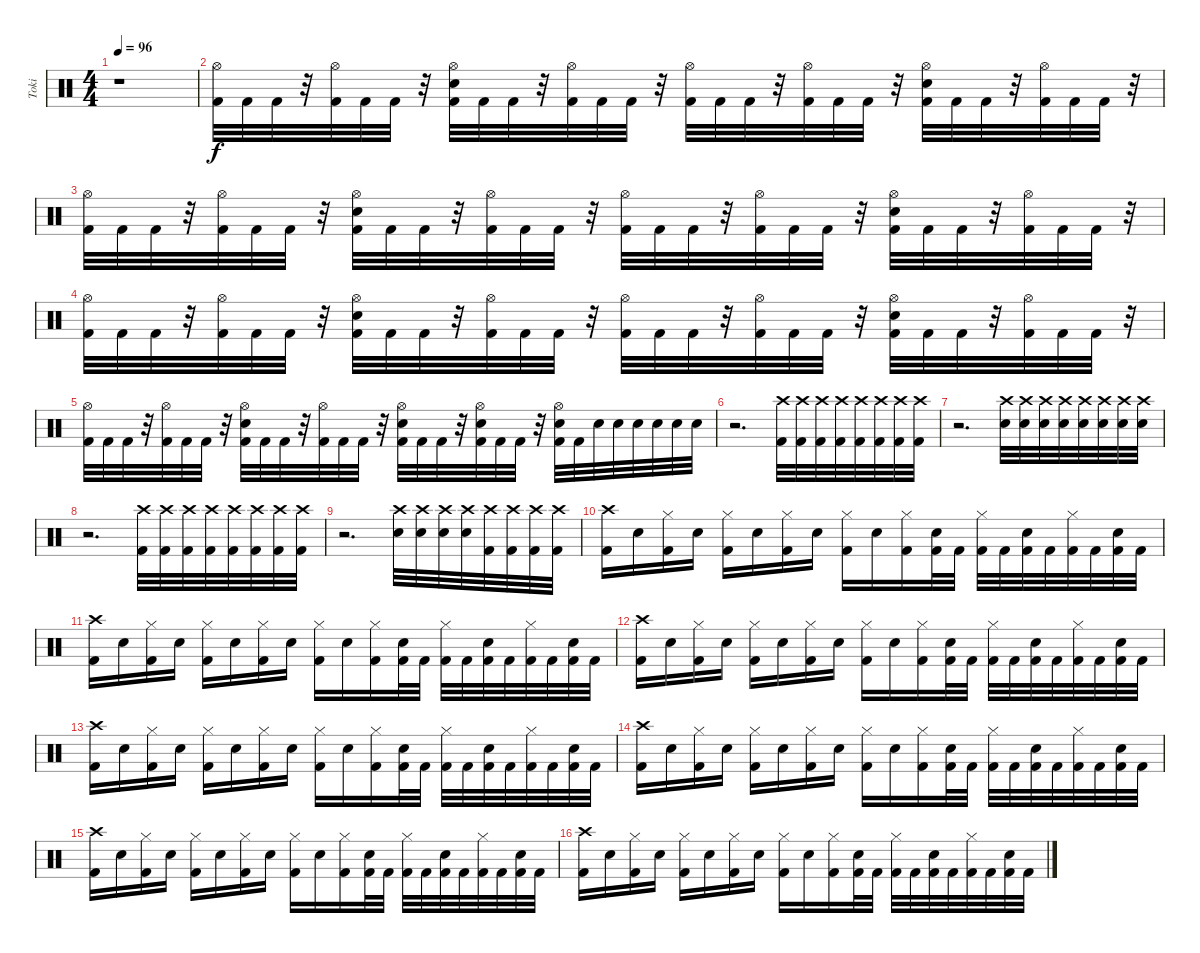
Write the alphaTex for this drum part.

\track ("Toki" "Toki") {instrument percussion}
\staff {score}
\articulation defaults
\ts (4 4)
\tempo 96
\clef neutral
\ks c
r.1{dy f} |
("Hi-Hat (open)" "Kick (hit) 2").32 "Kick (hit) 2".32 "Kick (hit) 2".32 r.32 ("Hi-Hat (open)" "Kick (hit) 2").32 "Kick (hit) 2".32 "Kick (hit) 2".32 r.32 ("Hi-Hat (open)" "Electric Snare (hit)" "Kick (hit) 2").32 "Kick (hit) 2".32 "Kick (hit) 2".32 r.32 ("Hi-Hat (open)" "Kick (hit) 2").32 "Kick (hit) 2".32 "Kick (hit) 2".32 r.32 ("Hi-Hat (open)" "Kick (hit) 2").32 "Kick (hit) 2".32 "Kick (hit) 2".32 r.32 ("Hi-Hat (open)" "Kick (hit) 2").32 "Kick (hit) 2".32 "Kick (hit) 2".32 r.32 ("Hi-Hat (open)" "Electric Snare (hit)" "Kick (hit) 2").32 "Kick (hit) 2".32 "Kick (hit) 2".32 r.32 ("Hi-Hat (open)" "Kick (hit) 2").32 "Kick (hit) 2".32 "Kick (hit) 2".32 r.32 |
("Hi-Hat (open)" "Kick (hit) 2").32 "Kick (hit) 2".32 "Kick (hit) 2".32 r.32 ("Hi-Hat (open)" "Kick (hit) 2").32 "Kick (hit) 2".32 "Kick (hit) 2".32 r.32 ("Hi-Hat (open)" "Electric Snare (hit)" "Kick (hit) 2").32 "Kick (hit) 2".32 "Kick (hit) 2".32 r.32 ("Hi-Hat (open)" "Kick (hit) 2").32 "Kick (hit) 2".32 "Kick (hit) 2".32 r.32 ("Hi-Hat (open)" "Kick (hit) 2").32 "Kick (hit) 2".32 "Kick (hit) 2".32 r.32 ("Hi-Hat (open)" "Kick (hit) 2").32 "Kick (hit) 2".32 "Kick (hit) 2".32 r.32 ("Hi-Hat (open)" "Electric Snare (hit)" "Kick (hit) 2").32 "Kick (hit) 2".32 "Kick (hit) 2".32 r.32 ("Hi-Hat (open)" "Kick (hit) 2").32 "Kick (hit) 2".32 "Kick (hit) 2".32 r.32 |
("Hi-Hat (open)" "Kick (hit) 2").32 "Kick (hit) 2".32 "Kick (hit) 2".32 r.32 ("Hi-Hat (open)" "Kick (hit) 2").32 "Kick (hit) 2".32 "Kick (hit) 2".32 r.32 ("Hi-Hat (open)" "Electric Snare (hit)" "Kick (hit) 2").32 "Kick (hit) 2".32 "Kick (hit) 2".32 r.32 ("Hi-Hat (open)" "Kick (hit) 2").32 "Kick (hit) 2".32 "Kick (hit) 2".32 r.32 ("Hi-Hat (open)" "Kick (hit) 2").32 "Kick (hit) 2".32 "Kick (hit) 2".32 r.32 ("Hi-Hat (open)" "Kick (hit) 2").32 "Kick (hit) 2".32 "Kick (hit) 2".32 r.32 ("Hi-Hat (open)" "Electric Snare (hit)" "Kick (hit) 2").32 "Kick (hit) 2".32 "Kick (hit) 2".32 r.32 ("Hi-Hat (open)" "Kick (hit) 2").32 "Kick (hit) 2".32 "Kick (hit) 2".32 r.32 |
("Hi-Hat (open)" "Kick (hit) 2").32 "Kick (hit) 2".32 "Kick (hit) 2".32 r.32 ("Hi-Hat (open)" "Kick (hit) 2").32 "Kick (hit) 2".32 "Kick (hit) 2".32 r.32 ("Hi-Hat (open)" "Electric Snare (hit)" "Kick (hit) 2").32 "Kick (hit) 2".32 "Kick (hit) 2".32 r.32 ("Hi-Hat (open)" "Kick (hit) 2").32 "Kick (hit) 2".32 "Kick (hit) 2".32 r.32 ("Hi-Hat (open)" "Electric Snare (hit)" "Kick (hit) 2").32 "Kick (hit) 2".32 "Kick (hit) 2".32 r.32 ("Hi-Hat (open)" "Electric Snare (hit)" "Kick (hit) 2").32 "Kick (hit) 2".32 "Kick (hit) 2".32 r.32 ("Hi-Hat (open)" "Electric Snare (hit)" "Kick (hit) 2").32 "Kick (hit) 2".32 "Electric Snare (hit)".32 "Electric Snare (hit)".32 "Electric Snare (hit)".32 "Electric Snare (hit)".32 "Electric Snare (hit)".32 "Electric Snare (hit)".32 |
\section ("" "")
r.2{d} ("Crash high (hit)" "Kick (hit) 2").32 ("Crash high (hit)" "Kick (hit) 2").32 ("Crash high (hit)" "Kick (hit) 2").32 ("Crash high (hit)" "Kick (hit) 2").32 ("Crash high (hit)" "Kick (hit) 2").32 ("Crash high (hit)" "Kick (hit) 2").32 ("Crash high (hit)" "Kick (hit) 2").32 ("Crash high (hit)" "Kick (hit) 2").32 |
r.2{d} ("Crash high (hit)" "Electric Snare (hit)").32 ("Crash high (hit)" "Electric Snare (hit)").32 ("Crash high (hit)" "Electric Snare (hit)").32 ("Crash high (hit)" "Electric Snare (hit)").32 ("Crash high (hit)" "Electric Snare (hit)").32 ("Crash high (hit)" "Electric Snare (hit)").32 ("Crash high (hit)" "Electric Snare (hit)").32 ("Crash high (hit)" "Electric Snare (hit)").32 |
r.2{d} ("Crash high (hit)" "Kick (hit) 2").32 ("Crash high (hit)" "Kick (hit) 2").32 ("Crash high (hit)" "Kick (hit) 2").32 ("Crash high (hit)" "Kick (hit) 2").32 ("Crash high (hit)" "Kick (hit) 2").32 ("Crash high (hit)" "Kick (hit) 2").32 ("Crash high (hit)" "Kick (hit) 2").32 ("Crash high (hit)" "Kick (hit) 2").32 |
r.2{d} ("Crash high (hit)" "Electric Snare (hit)").32 ("Crash high (hit)" "Electric Snare (hit)").32 ("Crash high (hit)" "Electric Snare (hit)").32 ("Crash high (hit)" "Electric Snare (hit)").32 ("Crash high (hit)" "Kick (hit) 2").32 ("Crash high (hit)" "Kick (hit) 2").32 ("Crash high (hit)" "Kick (hit) 2").32 ("Crash high (hit)" "Kick (hit) 2").32 |
\section ("" "")
("Crash high (hit)" "Kick (hit) 2").16 "Electric Snare (hit)".16 ("Hi-Hat (closed)" "Kick (hit) 2").16 "Electric Snare (hit)".16 ("Hi-Hat (closed)" "Kick (hit) 2").16 "Electric Snare (hit)".16 ("Hi-Hat (closed)" "Kick (hit) 2").16 "Electric Snare (hit)".16 ("Hi-Hat (closed)" "Kick (hit) 2").16 "Electric Snare (hit)".16 ("Hi-Hat (closed)" "Kick (hit) 2").16 ("Electric Snare (hit)" "Kick (hit) 2").32 "Kick (hit) 2".32 ("Hi-Hat (closed)" "Kick (hit) 2").32 "Kick (hit) 2".32 ("Electric Snare (hit)" "Kick (hit) 2").32 "Kick (hit) 2".32 ("Hi-Hat (closed)" "Kick (hit) 2").32 "Kick (hit) 2".32 ("Electric Snare (hit)" "Kick (hit) 2").32 "Kick (hit) 2".32 |
("Crash high (hit)" "Kick (hit) 2").16 "Electric Snare (hit)".16 ("Hi-Hat (closed)" "Kick (hit) 2").16 "Electric Snare (hit)".16 ("Hi-Hat (closed)" "Kick (hit) 2").16 "Electric Snare (hit)".16 ("Hi-Hat (closed)" "Kick (hit) 2").16 "Electric Snare (hit)".16 ("Hi-Hat (closed)" "Kick (hit) 2").16 "Electric Snare (hit)".16 ("Hi-Hat (closed)" "Kick (hit) 2").16 ("Electric Snare (hit)" "Kick (hit) 2").32 "Kick (hit) 2".32 ("Hi-Hat (closed)" "Kick (hit) 2").32 "Kick (hit) 2".32 ("Electric Snare (hit)" "Kick (hit) 2").32 "Kick (hit) 2".32 ("Hi-Hat (closed)" "Kick (hit) 2").32 "Kick (hit) 2".32 ("Electric Snare (hit)" "Kick (hit) 2").32 "Kick (hit) 2".32 |
("Crash high (hit)" "Kick (hit) 2").16 "Electric Snare (hit)".16 ("Hi-Hat (closed)" "Kick (hit) 2").16 "Electric Snare (hit)".16 ("Hi-Hat (closed)" "Kick (hit) 2").16 "Electric Snare (hit)".16 ("Hi-Hat (closed)" "Kick (hit) 2").16 "Electric Snare (hit)".16 ("Hi-Hat (closed)" "Kick (hit) 2").16 "Electric Snare (hit)".16 ("Hi-Hat (closed)" "Kick (hit) 2").16 ("Electric Snare (hit)" "Kick (hit) 2").32 "Kick (hit) 2".32 ("Hi-Hat (closed)" "Kick (hit) 2").32 "Kick (hit) 2".32 ("Electric Snare (hit)" "Kick (hit) 2").32 "Kick (hit) 2".32 ("Hi-Hat (closed)" "Kick (hit) 2").32 "Kick (hit) 2".32 ("Electric Snare (hit)" "Kick (hit) 2").32 "Kick (hit) 2".32 |
("Crash high (hit)" "Kick (hit) 2").16 "Electric Snare (hit)".16 ("Hi-Hat (closed)" "Kick (hit) 2").16 "Electric Snare (hit)".16 ("Hi-Hat (closed)" "Kick (hit) 2").16 "Electric Snare (hit)".16 ("Hi-Hat (closed)" "Kick (hit) 2").16 "Electric Snare (hit)".16 ("Hi-Hat (closed)" "Kick (hit) 2").16 "Electric Snare (hit)".16 ("Hi-Hat (closed)" "Kick (hit) 2").16 ("Electric Snare (hit)" "Kick (hit) 2").32 "Kick (hit) 2".32 ("Hi-Hat (closed)" "Kick (hit) 2").32 "Kick (hit) 2".32 ("Electric Snare (hit)" "Kick (hit) 2").32 "Kick (hit) 2".32 ("Hi-Hat (closed)" "Kick (hit) 2").32 "Kick (hit) 2".32 ("Electric Snare (hit)" "Kick (hit) 2").32 "Kick (hit) 2".32 |
("Crash high (hit)" "Kick (hit) 2").16 "Electric Snare (hit)".16 ("Hi-Hat (closed)" "Kick (hit) 2").16 "Electric Snare (hit)".16 ("Hi-Hat (closed)" "Kick (hit) 2").16 "Electric Snare (hit)".16 ("Hi-Hat (closed)" "Kick (hit) 2").16 "Electric Snare (hit)".16 ("Hi-Hat (closed)" "Kick (hit) 2").16 "Electric Snare (hit)".16 ("Hi-Hat (closed)" "Kick (hit) 2").16 ("Electric Snare (hit)" "Kick (hit) 2").32 "Kick (hit) 2".32 ("Hi-Hat (closed)" "Kick (hit) 2").32 "Kick (hit) 2".32 ("Electric Snare (hit)" "Kick (hit) 2").32 "Kick (hit) 2".32 ("Hi-Hat (closed)" "Kick (hit) 2").32 "Kick (hit) 2".32 ("Electric Snare (hit)" "Kick (hit) 2").32 "Kick (hit) 2".32 |
("Crash high (hit)" "Kick (hit) 2").16 "Electric Snare (hit)".16 ("Hi-Hat (closed)" "Kick (hit) 2").16 "Electric Snare (hit)".16 ("Hi-Hat (closed)" "Kick (hit) 2").16 "Electric Snare (hit)".16 ("Hi-Hat (closed)" "Kick (hit) 2").16 "Electric Snare (hit)".16 ("Hi-Hat (closed)" "Kick (hit) 2").16 "Electric Snare (hit)".16 ("Hi-Hat (closed)" "Kick (hit) 2").16 ("Electric Snare (hit)" "Kick (hit) 2").32 "Kick (hit) 2".32 ("Hi-Hat (closed)" "Kick (hit) 2").32 "Kick (hit) 2".32 ("Electric Snare (hit)" "Kick (hit) 2").32 "Kick (hit) 2".32 ("Hi-Hat (closed)" "Kick (hit) 2").32 "Kick (hit) 2".32 ("Electric Snare (hit)" "Kick (hit) 2").32 "Kick (hit) 2".32 |
("Crash high (hit)" "Kick (hit) 2").16 "Electric Snare (hit)".16 ("Hi-Hat (closed)" "Kick (hit) 2").16 "Electric Snare (hit)".16 ("Hi-Hat (closed)" "Kick (hit) 2").16 "Electric Snare (hit)".16 ("Hi-Hat (closed)" "Kick (hit) 2").16 "Electric Snare (hit)".16 ("Hi-Hat (closed)" "Kick (hit) 2").16 "Electric Snare (hit)".16 ("Hi-Hat (closed)" "Kick (hit) 2").16 ("Electric Snare (hit)" "Kick (hit) 2").32 "Kick (hit) 2".32 ("Hi-Hat (closed)" "Kick (hit) 2").32 "Kick (hit) 2".32 ("Electric Snare (hit)" "Kick (hit) 2").32 "Kick (hit) 2".32 ("Hi-Hat (closed)" "Kick (hit) 2").32 "Kick (hit) 2".32 ("Electric Snare (hit)" "Kick (hit) 2").32 "Kick (hit) 2".32
